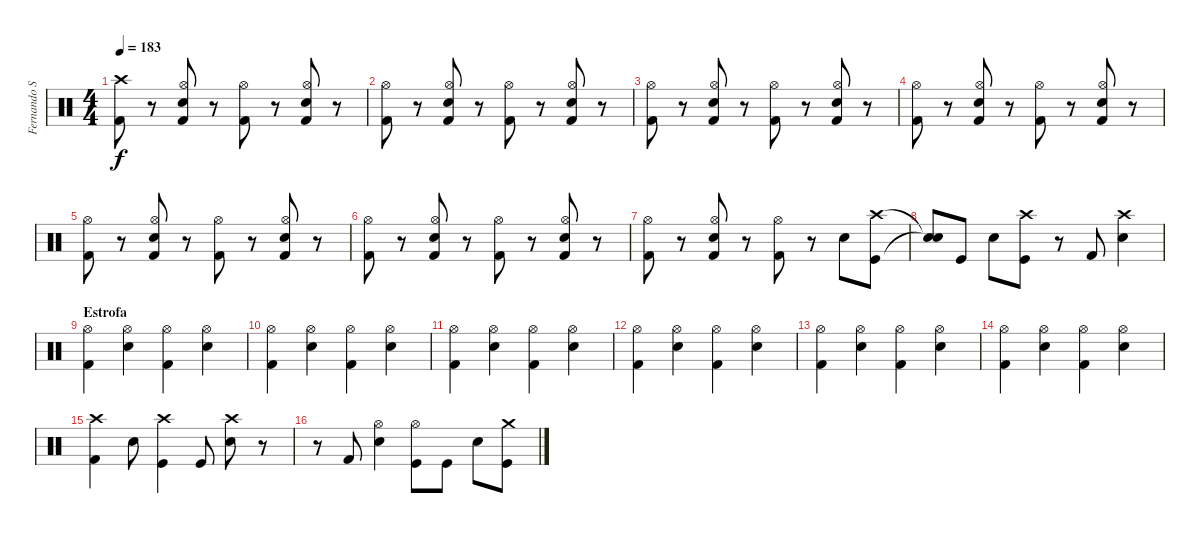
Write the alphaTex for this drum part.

\track ("Fernando Scarcella" "Fernando S") {instrument percussion}
\staff {score}
\articulation defaults
\ts (4 4)
\tempo 183
\clef neutral
\ks c
("Crash high (hit)" "Kick (hit) 2").8{dy f} r.8 ("Hi-Hat (open)" "Snare (hit) 2" "Kick (hit) 2").8 r.8 ("Hi-Hat (open)" "Kick (hit) 2").8 r.8 ("Hi-Hat (open)" "Snare (hit) 2" "Kick (hit) 2").8 r.8 |
("Hi-Hat (open)" "Kick (hit) 2").8 r.8 ("Hi-Hat (open)" "Snare (hit) 2" "Kick (hit) 2").8 r.8 ("Hi-Hat (open)" "Kick (hit) 2").8 r.8 ("Hi-Hat (open)" "Snare (hit) 2" "Kick (hit) 2").8 r.8 |
("Hi-Hat (open)" "Kick (hit) 2").8 r.8 ("Hi-Hat (open)" "Snare (hit) 2" "Kick (hit) 2").8 r.8 ("Hi-Hat (open)" "Kick (hit) 2").8 r.8 ("Hi-Hat (open)" "Snare (hit) 2" "Kick (hit) 2").8 r.8 |
("Hi-Hat (open)" "Kick (hit) 2").8 r.8 ("Hi-Hat (open)" "Snare (hit) 2" "Kick (hit) 2").8 r.8 ("Hi-Hat (open)" "Kick (hit) 2").8 r.8 ("Hi-Hat (open)" "Snare (hit) 2" "Kick (hit) 2").8 r.8 |
("Hi-Hat (open)" "Kick (hit) 2").8 r.8 ("Hi-Hat (open)" "Snare (hit) 2" "Kick (hit) 2").8 r.8 ("Hi-Hat (open)" "Kick (hit) 2").8 r.8 ("Hi-Hat (open)" "Snare (hit) 2" "Kick (hit) 2").8 r.8 |
("Hi-Hat (open)" "Kick (hit) 2").8 r.8 ("Hi-Hat (open)" "Snare (hit) 2" "Kick (hit) 2").8 r.8 ("Hi-Hat (open)" "Kick (hit) 2").8 r.8 ("Hi-Hat (open)" "Snare (hit) 2" "Kick (hit) 2").8 r.8 |
("Hi-Hat (open)" "Kick (hit) 2").8 r.8 ("Hi-Hat (open)" "Snare (hit) 2" "Kick (hit) 2").8 r.8 ("Hi-Hat (open)" "Kick (hit) 2").8 r.8 "Snare (hit) 2".8 ("Crash high (hit)" "Kick (hit)").8 |
("Snare (hit)"{t} "Snare (hit)"{t}).8 "Kick (hit)".8 "Snare (hit) 2".8 ("Crash high (hit)" "Kick (hit)").8 r.8 "Kick (hit) 2".8 ("Crash high (hit)" "Snare (hit) 2").4 |
\section ("" "Estrofa")
("Hi-Hat (open)" "Kick (hit) 2").4 ("Hi-Hat (open)" "Snare (hit) 2").4 ("Hi-Hat (open)" "Kick (hit) 2").4 ("Hi-Hat (open)" "Snare (hit) 2").4 |
("Hi-Hat (open)" "Kick (hit) 2").4 ("Hi-Hat (open)" "Snare (hit) 2").4 ("Hi-Hat (open)" "Kick (hit) 2").4 ("Hi-Hat (open)" "Snare (hit) 2").4 |
("Hi-Hat (open)" "Kick (hit) 2").4 ("Hi-Hat (open)" "Snare (hit) 2").4 ("Hi-Hat (open)" "Kick (hit) 2").4 ("Hi-Hat (open)" "Snare (hit) 2").4 |
("Hi-Hat (open)" "Kick (hit) 2").4 ("Hi-Hat (open)" "Snare (hit) 2").4 ("Hi-Hat (open)" "Kick (hit) 2").4 ("Hi-Hat (open)" "Snare (hit) 2").4 |
("Hi-Hat (open)" "Kick (hit) 2").4 ("Hi-Hat (open)" "Snare (hit) 2").4 ("Hi-Hat (open)" "Kick (hit) 2").4 ("Hi-Hat (open)" "Snare (hit) 2").4 |
("Hi-Hat (open)" "Kick (hit) 2").4 ("Hi-Hat (open)" "Snare (hit) 2").4 ("Hi-Hat (open)" "Kick (hit) 2").4 ("Hi-Hat (open)" "Snare (hit) 2").4 |
("Crash high (hit)" "Kick (hit) 2").4 "Snare (hit) 2".8 ("Crash high (hit)" "Kick (hit)").4 "Kick (hit)".8 ("Crash high (hit)" "Snare (hit) 2").8 r.8 |
r.8 "Kick (hit) 2".8 ("Hi-Hat (open)" "Snare (hit) 2").4 ("Kick (hit)" "Hi-Hat (open)").8 "Kick (hit)".8 "Snare (hit) 2".8 ("Kick (hit)" "Crash medium (hit)").8
